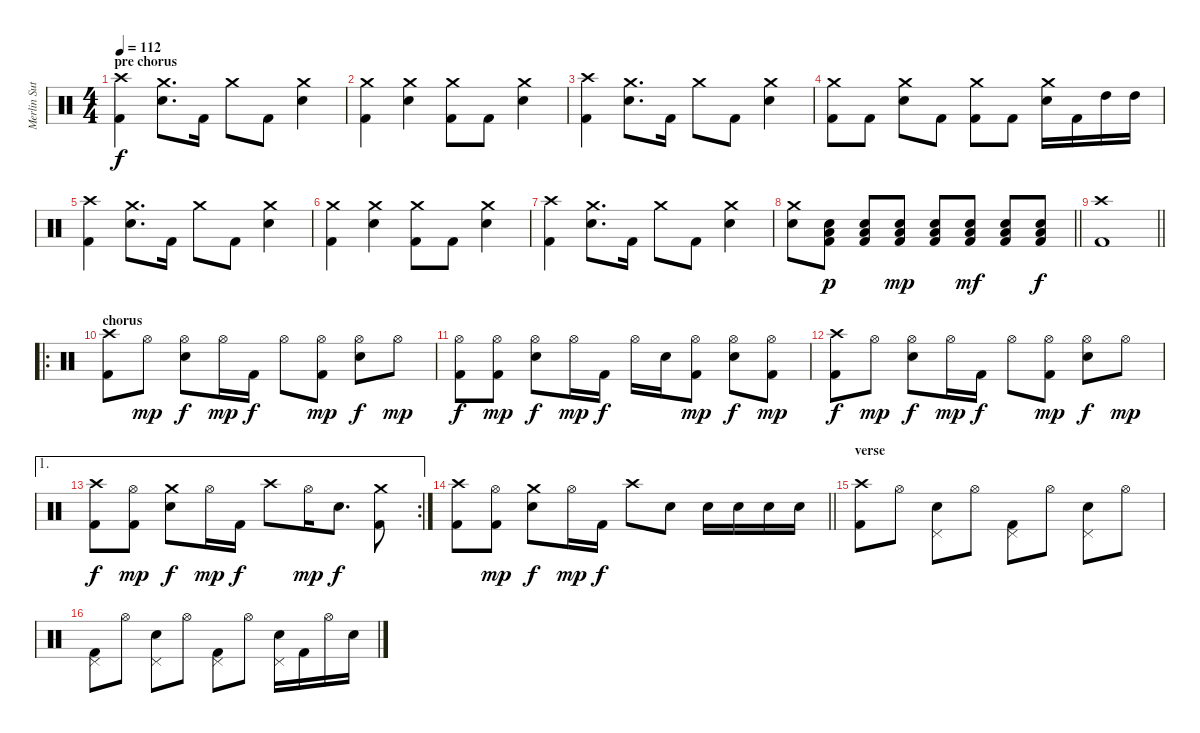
\track ("Merlin Sutter" "Merlin Sut") {instrument percussion}
\staff {score}
\articulation defaults
\ts (4 4)
\section ("" "pre chorus")
\tempo 112
\clef neutral
\ks c
("Crash high (hit)" "Kick (hit) 2").4{dy f} ("Crash medium (hit)" "Snare (hit) 2").8{d} "Kick (hit) 2".16 "Crash medium (hit)".8 "Kick (hit) 2".8 ("Crash medium (hit)" "Snare (hit) 2").4 |
("Crash medium (hit)" "Kick (hit) 2").4 ("Crash medium (hit)" "Snare (hit) 2").4 ("Crash medium (hit)" "Kick (hit) 2").8 "Kick (hit) 2".8 ("Crash medium (hit)" "Snare (hit) 2").4 |
("Crash high (hit)" "Kick (hit) 2").4 ("Crash medium (hit)" "Snare (hit) 2").8{d} "Kick (hit) 2".16 "Crash medium (hit)".8 "Kick (hit) 2".8 ("Crash medium (hit)" "Snare (hit) 2").4 |
("Crash medium (hit)" "Kick (hit) 2").8 "Kick (hit) 2".8 ("Crash medium (hit)" "Snare (hit) 2").8 "Kick (hit) 2".8 ("Crash medium (hit)" "Kick (hit) 2").8 "Kick (hit) 2".8 ("Crash medium (hit)" "Snare (hit) 2").16 "Kick (hit) 2".16 "High Tom (hit)".16 "High Tom (hit)".16 |
("Crash high (hit)" "Kick (hit) 2").4 ("Crash medium (hit)" "Snare (hit) 2").8{d} "Kick (hit) 2".16 "Crash medium (hit)".8 "Kick (hit) 2".8 ("Crash medium (hit)" "Snare (hit) 2").4 |
("Crash medium (hit)" "Kick (hit) 2").4 ("Crash medium (hit)" "Snare (hit) 2").4 ("Crash medium (hit)" "Kick (hit) 2").8 "Kick (hit) 2".8 ("Crash medium (hit)" "Snare (hit) 2").4 |
("Crash high (hit)" "Kick (hit) 2").4 ("Crash medium (hit)" "Snare (hit) 2").8{d} "Kick (hit) 2".16 "Crash medium (hit)".8 "Kick (hit) 2".8 ("Crash medium (hit)" "Snare (hit) 2").4 |
\barLineRight lightlight
("Crash medium (hit)" "Snare (hit) 2").8 ("Low Tom (hit)" "Snare (hit) 2" "Kick (hit) 2").8{dy p} ("Low Tom (hit)" "Snare (hit) 2" "Kick (hit) 2").8 ("Low Tom (hit)" "Snare (hit) 2" "Kick (hit) 2").8{dy mp} ("Low Tom (hit)" "Snare (hit) 2" "Kick (hit) 2").8 ("Low Tom (hit)" "Snare (hit) 2" "Kick (hit) 2").8{dy mf} ("Low Tom (hit)" "Snare (hit) 2" "Kick (hit) 2").8 ("Low Tom (hit)" "Snare (hit) 2" "Kick (hit) 2").8{dy f} |
\section ("" "")
\barLineRight lightlight
("Crash high (hit)" "Kick (hit) 2").1 |
\ro
\section ("" "chorus")
("Crash high (hit)" "Kick (hit) 2").8 "Hi-Hat (open)".8{dy mp} ("Hi-Hat (open)" "Snare (hit) 2").8{dy f} "Hi-Hat (open)".16{dy mp} "Kick (hit) 2".16{dy f} "Hi-Hat (open)".8 ("Hi-Hat (open)" "Kick (hit) 2").8{dy mp} ("Hi-Hat (open)" "Snare (hit) 2").8{dy f} "Hi-Hat (open)".8{dy mp} |
("Hi-Hat (open)" "Kick (hit) 2").8{dy f} ("Hi-Hat (open)" "Kick (hit) 2").8{dy mp} ("Hi-Hat (open)" "Snare (hit) 2").8{dy f} "Hi-Hat (open)".16{dy mp} "Kick (hit) 2".16{dy f} "Hi-Hat (open)".16 "Snare (hit) 2".16 ("Hi-Hat (open)" "Kick (hit) 2").8{dy mp} ("Hi-Hat (open)" "Snare (hit) 2").8{dy f} ("Hi-Hat (open)" "Kick (hit) 2").8{dy mp} |
("Crash high (hit)" "Kick (hit) 2").8{dy f} "Hi-Hat (open)".8{dy mp} ("Hi-Hat (open)" "Snare (hit) 2").8{dy f} "Hi-Hat (open)".16{dy mp} "Kick (hit) 2".16{dy f} "Hi-Hat (open)".8 ("Hi-Hat (open)" "Kick (hit) 2").8{dy mp} ("Hi-Hat (open)" "Snare (hit) 2").8{dy f} "Hi-Hat (open)".8{dy mp} |
\ae 1
\rc 2
("Crash high (hit)" "Kick (hit) 2").8{dy f} ("Hi-Hat (open)" "Kick (hit) 2").8{dy mp} ("Crash medium (hit)" "Snare (hit) 2").8{dy f} "Hi-Hat (open)".16{dy mp} "Kick (hit) 2".16{dy f} "Crash high (hit)".8 "Hi-Hat (open)".16{dy mp} "Snare (hit) 2".8{d dy f} ("Crash medium (hit)" "Kick (hit) 2").8 |
\barLineRight lightlight
("Crash high (hit)" "Kick (hit) 2").8 ("Hi-Hat (open)" "Kick (hit) 2").8{dy mp} ("Crash medium (hit)" "Snare (hit) 2").8{dy f} "Hi-Hat (open)".16{dy mp} "Kick (hit) 2".16{dy f} "Crash high (hit)".8 "Snare (hit) 2".8 "Snare (hit) 2".16 "Snare (hit) 2".16 "Snare (hit) 2".16 "Snare (hit) 2".16 |
\section ("" "verse")
("Crash high (hit)" "Kick (hit) 2").8 "Hi-Hat (open)".8 ("Pedal Hi-Hat (hit)" "Snare (hit) 2").8 "Hi-Hat (open)".8 ("Pedal Hi-Hat (hit)" "Kick (hit) 2").8 "Hi-Hat (open)".8 ("Pedal Hi-Hat (hit)" "Snare (hit) 2").8 "Hi-Hat (open)".8 |
("Pedal Hi-Hat (hit)" "Kick (hit) 2").8 "Hi-Hat (open)".8 ("Pedal Hi-Hat (hit)" "Snare (hit) 2").8 "Hi-Hat (open)".8 ("Pedal Hi-Hat (hit)" "Kick (hit) 2").8 "Hi-Hat (open)".8 ("Pedal Hi-Hat (hit)" "Snare (hit) 2").16 "Kick (hit) 2".16 "Hi-Hat (open)".16 "Snare (hit) 2".16
